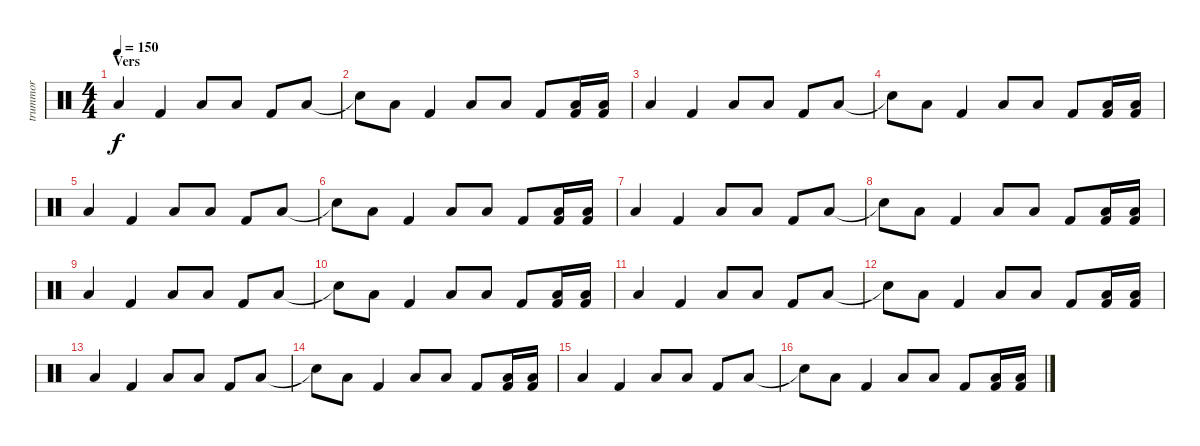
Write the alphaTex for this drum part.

\track ("trummor" "trummor") {instrument percussion}
\staff {score}
\articulation defaults
\ts (4 4)
\section ("" "Vers")
\tempo 150
\clef neutral
\ks c "Low Floor Tom (hit)".4{dy f} "Kick (hit) 2".4 "Low Floor Tom (hit)".8 "Low Floor Tom (hit)".8 "Kick (hit) 2".8 "Low Floor Tom (hit)".8
|
"Snare (hit)"{t}.8 "Low Floor Tom (hit)".8 "Kick (hit) 2".4 "Low Floor Tom (hit)".8 "Low Floor Tom (hit)".8 "Kick (hit) 2".8 ("Kick (hit) 2" "Low Floor Tom (hit)").16 ("Kick (hit) 2" "Low Floor Tom (hit)").16 |
"Low Floor Tom (hit)".4 "Kick (hit) 2".4 "Low Floor Tom (hit)".8 "Low Floor Tom (hit)".8 "Kick (hit) 2".8 "Low Floor Tom (hit)".8 |
"Snare (hit)"{t}.8 "Low Floor Tom (hit)".8 "Kick (hit) 2".4 "Low Floor Tom (hit)".8 "Low Floor Tom (hit)".8 "Kick (hit) 2".8 ("Kick (hit) 2" "Low Floor Tom (hit)").16 ("Kick (hit) 2" "Low Floor Tom (hit)").16 |
"Low Floor Tom (hit)".4 "Kick (hit) 2".4 "Low Floor Tom (hit)".8 "Low Floor Tom (hit)".8 "Kick (hit) 2".8 "Low Floor Tom (hit)".8 |
"Snare (hit)"{t}.8 "Low Floor Tom (hit)".8 "Kick (hit) 2".4 "Low Floor Tom (hit)".8 "Low Floor Tom (hit)".8 "Kick (hit) 2".8 ("Kick (hit) 2" "Low Floor Tom (hit)").16 ("Kick (hit) 2" "Low Floor Tom (hit)").16 |
"Low Floor Tom (hit)".4 "Kick (hit) 2".4 "Low Floor Tom (hit)".8 "Low Floor Tom (hit)".8 "Kick (hit) 2".8 "Low Floor Tom (hit)".8 |
"Snare (hit)"{t}.8 "Low Floor Tom (hit)".8 "Kick (hit) 2".4 "Low Floor Tom (hit)".8 "Low Floor Tom (hit)".8 "Kick (hit) 2".8 ("Kick (hit) 2" "Low Floor Tom (hit)").16 ("Kick (hit) 2" "Low Floor Tom (hit)").16 |
"Low Floor Tom (hit)".4 "Kick (hit) 2".4 "Low Floor Tom (hit)".8 "Low Floor Tom (hit)".8 "Kick (hit) 2".8 "Low Floor Tom (hit)".8 |
"Snare (hit)"{t}.8 "Low Floor Tom (hit)".8 "Kick (hit) 2".4 "Low Floor Tom (hit)".8 "Low Floor Tom (hit)".8 "Kick (hit) 2".8 ("Kick (hit) 2" "Low Floor Tom (hit)").16 ("Kick (hit) 2" "Low Floor Tom (hit)").16 |
"Low Floor Tom (hit)".4 "Kick (hit) 2".4 "Low Floor Tom (hit)".8 "Low Floor Tom (hit)".8 "Kick (hit) 2".8 "Low Floor Tom (hit)".8 |
"Snare (hit)"{t}.8 "Low Floor Tom (hit)".8 "Kick (hit) 2".4 "Low Floor Tom (hit)".8 "Low Floor Tom (hit)".8 "Kick (hit) 2".8 ("Kick (hit) 2" "Low Floor Tom (hit)").16 ("Kick (hit) 2" "Low Floor Tom (hit)").16 |
"Low Floor Tom (hit)".4 "Kick (hit) 2".4 "Low Floor Tom (hit)".8 "Low Floor Tom (hit)".8 "Kick (hit) 2".8 "Low Floor Tom (hit)".8 |
"Snare (hit)"{t}.8 "Low Floor Tom (hit)".8 "Kick (hit) 2".4 "Low Floor Tom (hit)".8 "Low Floor Tom (hit)".8 "Kick (hit) 2".8 ("Kick (hit) 2" "Low Floor Tom (hit)").16 ("Kick (hit) 2" "Low Floor Tom (hit)").16 |
"Low Floor Tom (hit)".4 "Kick (hit) 2".4 "Low Floor Tom (hit)".8 "Low Floor Tom (hit)".8 "Kick (hit) 2".8 "Low Floor Tom (hit)".8 |
"Snare (hit)"{t}.8 "Low Floor Tom (hit)".8 "Kick (hit) 2".4 "Low Floor Tom (hit)".8 "Low Floor Tom (hit)".8 "Kick (hit) 2".8 ("Kick (hit) 2" "Low Floor Tom (hit)").16 ("Kick (hit) 2" "Low Floor Tom (hit)").16
